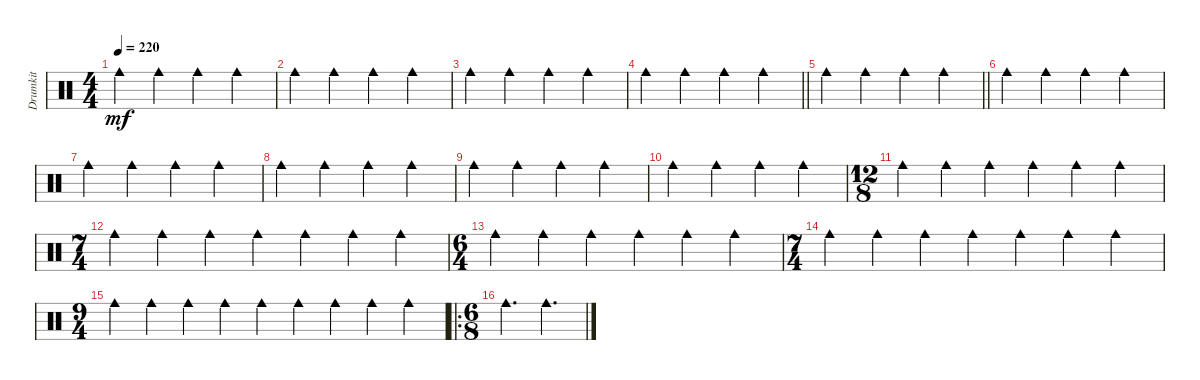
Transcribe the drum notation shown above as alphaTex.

\track ("Drumkit" "Drumkit") {instrument percussion}
\staff {score}
\articulation defaults
\ts (4 4)
\tempo 220
\clef neutral
\ks c "Cowbell medium (hit)".4{dy mf} "Cowbell medium (hit)".4 "Cowbell medium (hit)".4 "Cowbell medium (hit)".4
|
"Cowbell medium (hit)".4 "Cowbell medium (hit)".4 "Cowbell medium (hit)".4 "Cowbell medium (hit)".4 |
"Cowbell medium (hit)".4 "Cowbell medium (hit)".4 "Cowbell medium (hit)".4 "Cowbell medium (hit)".4 |
\barLineRight lightlight "Cowbell medium (hit)".4 "Cowbell medium (hit)".4 "Cowbell medium (hit)".4 "Cowbell medium (hit)".4
|
\section ("" "")
\barLineRight lightlight "Cowbell medium (hit)".4 "Cowbell medium (hit)".4 "Cowbell medium (hit)".4 "Cowbell medium (hit)".4
|
\section ("" "")
"Cowbell medium (hit)".4 "Cowbell medium (hit)".4 "Cowbell medium (hit)".4 "Cowbell medium (hit)".4 |
"Cowbell medium (hit)".4 "Cowbell medium (hit)".4 "Cowbell medium (hit)".4 "Cowbell medium (hit)".4 |
"Cowbell medium (hit)".4 "Cowbell medium (hit)".4 "Cowbell medium (hit)".4 "Cowbell medium (hit)".4 |
"Cowbell medium (hit)".4 "Cowbell medium (hit)".4 "Cowbell medium (hit)".4 "Cowbell medium (hit)".4 |
"Cowbell medium (hit)".4 "Cowbell medium (hit)".4 "Cowbell medium (hit)".4 "Cowbell medium (hit)".4 |
\ts (12 8)
"Cowbell medium (hit)".4 "Cowbell medium (hit)".4 "Cowbell medium (hit)".4 "Cowbell medium (hit)".4 "Cowbell medium (hit)".4 "Cowbell medium (hit)".4 |
\ts (7 4)
"Cowbell medium (hit)".4 "Cowbell medium (hit)".4 "Cowbell medium (hit)".4 "Cowbell medium (hit)".4 "Cowbell medium (hit)".4 "Cowbell medium (hit)".4 "Cowbell medium (hit)".4 |
\ts (6 4)
"Cowbell medium (hit)".4 "Cowbell medium (hit)".4 "Cowbell medium (hit)".4 "Cowbell medium (hit)".4 "Cowbell medium (hit)".4 "Cowbell medium (hit)".4 |
\ts (7 4)
"Cowbell medium (hit)".4 "Cowbell medium (hit)".4 "Cowbell medium (hit)".4 "Cowbell medium (hit)".4 "Cowbell medium (hit)".4 "Cowbell medium (hit)".4 "Cowbell medium (hit)".4 |
\ts (9 4)
"Cowbell medium (hit)".4 "Cowbell medium (hit)".4 "Cowbell medium (hit)".4 "Cowbell medium (hit)".4 "Cowbell medium (hit)".4 "Cowbell medium (hit)".4 "Cowbell medium (hit)".4 "Cowbell medium (hit)".4 "Cowbell medium (hit)".4 |
\ro
\ts (6 8)
"Cowbell medium (hit)".4{d} "Cowbell medium (hit)".4{d}
